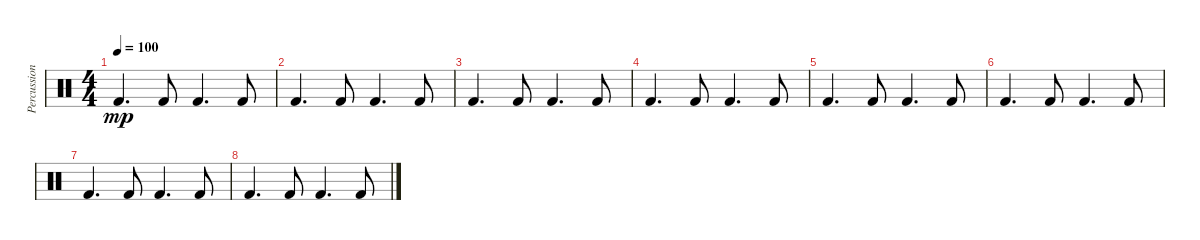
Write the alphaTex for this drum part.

\track ("Percussion" "Percussion") {instrument percussion}
\staff {score}
\articulation defaults
\ts (4 4)
\tempo 100
\clef neutral
\ks c "Kick (hit) 2".4{d dy mp} "Kick (hit) 2".8 "Kick (hit) 2".4{d} "Kick (hit) 2".8
|
"Kick (hit) 2".4{d} "Kick (hit) 2".8 "Kick (hit) 2".4{d} "Kick (hit) 2".8 |
"Kick (hit) 2".4{d} "Kick (hit) 2".8 "Kick (hit) 2".4{d} "Kick (hit) 2".8 |
"Kick (hit) 2".4{d} "Kick (hit) 2".8 "Kick (hit) 2".4{d} "Kick (hit) 2".8 |
"Kick (hit) 2".4{d} "Kick (hit) 2".8 "Kick (hit) 2".4{d} "Kick (hit) 2".8 |
"Kick (hit) 2".4{d} "Kick (hit) 2".8 "Kick (hit) 2".4{d} "Kick (hit) 2".8 |
"Kick (hit) 2".4{d} "Kick (hit) 2".8 "Kick (hit) 2".4{d} "Kick (hit) 2".8 |
"Kick (hit) 2".4{d} "Kick (hit) 2".8 "Kick (hit) 2".4{d} "Kick (hit) 2".8
